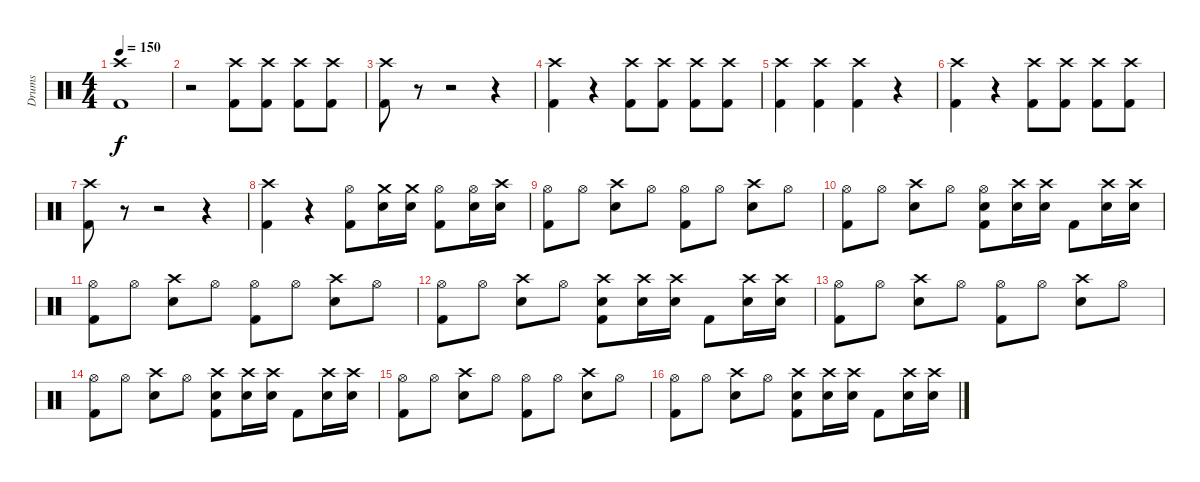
\track ("Drums" "Drums") {instrument percussion}
\staff {score}
\articulation defaults
\ts (4 4)
\tempo 150
\clef neutral
\ks c
("Crash high (hit)" "Kick (hit) 2").1{dy f} |
r.2 ("Crash high (hit)" "Kick (hit) 2").8 ("Crash high (hit)" "Kick (hit) 2").8 ("Crash high (hit)" "Kick (hit) 2").8 ("Crash high (hit)" "Kick (hit) 2").8 |
("Crash high (hit)" "Kick (hit) 2").8 r.8 r.2 r.4 |
("Crash high (hit)" "Kick (hit) 2").4 r.4 ("Crash high (hit)" "Kick (hit) 2").8 ("Crash high (hit)" "Kick (hit) 2").8 ("Crash high (hit)" "Kick (hit) 2").8 ("Crash high (hit)" "Kick (hit) 2").8 |
("Crash high (hit)" "Kick (hit) 2").4 ("Crash high (hit)" "Kick (hit) 2").4 ("Crash high (hit)" "Kick (hit) 2").4 r.4 |
("Crash high (hit)" "Kick (hit) 2").4 r.4 ("Crash high (hit)" "Kick (hit) 2").8 ("Crash high (hit)" "Kick (hit) 2").8 ("Crash high (hit)" "Kick (hit) 2").8 ("Crash high (hit)" "Kick (hit) 2").8 |
("Crash high (hit)" "Kick (hit) 2").8 r.8 r.2 r.4 |
("Crash high (hit)" "Kick (hit) 2").4 r.4 ("Hi-Hat (open)" "Kick (hit) 2").8 ("Crash medium (hit)" "Electric Snare (hit)").16 ("Crash medium (hit)" "Electric Snare (hit)").16 ("Hi-Hat (open)" "Kick (hit) 2").8 ("Hi-Hat (open)" "Electric Snare (hit)").16 ("Crash high (hit)" "Electric Snare (hit)").16 |
("Hi-Hat (open)" "Kick (hit) 2").8 "Hi-Hat (open)".8 ("Crash high (hit)" "Electric Snare (hit)").8 "Hi-Hat (open)".8 ("Hi-Hat (open)" "Kick (hit) 2").8 "Hi-Hat (open)".8 ("Crash high (hit)" "Electric Snare (hit)").8 "Hi-Hat (open)".8 |
("Hi-Hat (open)" "Kick (hit) 2").8 "Hi-Hat (open)".8 ("Crash high (hit)" "Electric Snare (hit)").8 "Hi-Hat (open)".8 ("Hi-Hat (open)" "Electric Snare (hit)" "Kick (hit) 2").8 ("Crash high (hit)" "Electric Snare (hit)").16 ("Crash high (hit)" "Electric Snare (hit)").16 "Kick (hit) 2".8 ("Crash high (hit)" "Electric Snare (hit)").16 ("Crash high (hit)" "Electric Snare (hit)").16 |
("Hi-Hat (open)" "Kick (hit) 2").8 "Hi-Hat (open)".8 ("Crash high (hit)" "Electric Snare (hit)").8 "Hi-Hat (open)".8 ("Hi-Hat (open)" "Kick (hit) 2").8 "Hi-Hat (open)".8 ("Crash high (hit)" "Electric Snare (hit)").8 "Hi-Hat (open)".8 |
("Hi-Hat (open)" "Kick (hit) 2").8 "Hi-Hat (open)".8 ("Crash high (hit)" "Electric Snare (hit)").8 "Hi-Hat (open)".8 ("Crash high (hit)" "Electric Snare (hit)" "Kick (hit) 2").8 ("Crash high (hit)" "Electric Snare (hit)").16 ("Crash high (hit)" "Electric Snare (hit)").16 "Kick (hit) 2".8 ("Crash high (hit)" "Electric Snare (hit)").16 ("Crash high (hit)" "Electric Snare (hit)").16 |
("Hi-Hat (open)" "Kick (hit) 2").8 "Hi-Hat (open)".8 ("Crash high (hit)" "Electric Snare (hit)").8 "Hi-Hat (open)".8 ("Hi-Hat (open)" "Kick (hit) 2").8 "Hi-Hat (open)".8 ("Crash high (hit)" "Electric Snare (hit)").8 "Hi-Hat (open)".8 |
("Hi-Hat (open)" "Kick (hit) 2").8 "Hi-Hat (open)".8 ("Crash high (hit)" "Electric Snare (hit)").8 "Hi-Hat (open)".8 ("Crash high (hit)" "Electric Snare (hit)" "Kick (hit) 2").8 ("Crash high (hit)" "Electric Snare (hit)").16 ("Crash high (hit)" "Electric Snare (hit)").16 "Kick (hit) 2".8 ("Crash high (hit)" "Electric Snare (hit)").16 ("Crash high (hit)" "Electric Snare (hit)").16 |
("Hi-Hat (open)" "Kick (hit) 2").8 "Hi-Hat (open)".8 ("Crash high (hit)" "Electric Snare (hit)").8 "Hi-Hat (open)".8 ("Hi-Hat (open)" "Kick (hit) 2").8 "Hi-Hat (open)".8 ("Crash high (hit)" "Electric Snare (hit)").8 "Hi-Hat (open)".8 |
("Hi-Hat (open)" "Kick (hit) 2").8 "Hi-Hat (open)".8 ("Crash high (hit)" "Electric Snare (hit)").8 "Hi-Hat (open)".8 ("Crash high (hit)" "Electric Snare (hit)" "Kick (hit) 2").8 ("Crash high (hit)" "Electric Snare (hit)").16 ("Crash high (hit)" "Electric Snare (hit)").16 "Kick (hit) 2".8 ("Crash high (hit)" "Electric Snare (hit)").16 ("Crash high (hit)" "Electric Snare (hit)").16
